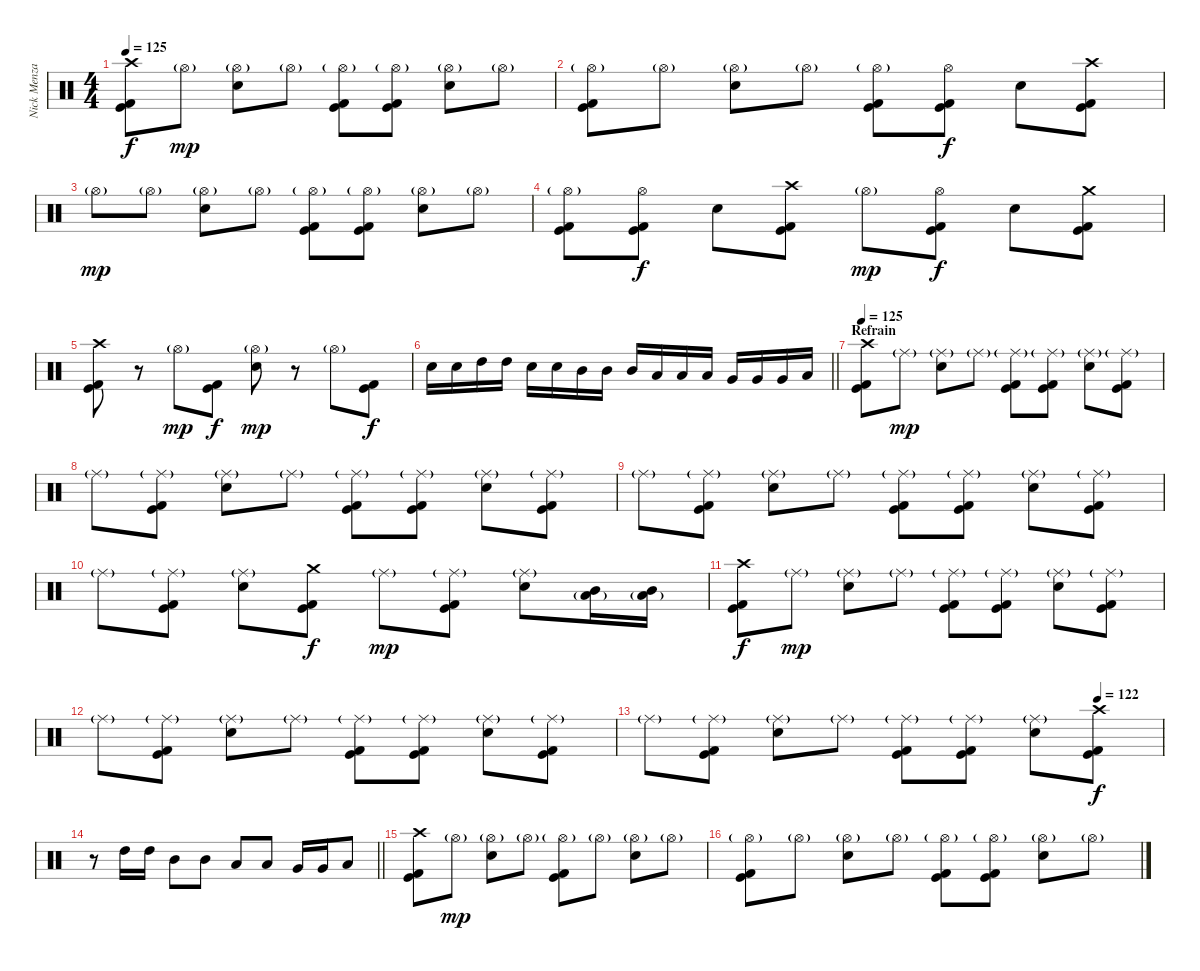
\track ("Nick Menza" "Nick Menza") {instrument percussion}
\staff {score}
\articulation defaults
\ts (4 4)
\tempo 125
\clef neutral
\ks c
("Crash high (hit)" "Kick (hit)" "Kick (hit) 2").8{dy f} "Hi-Hat (open)"{g}.8{dy mp} ("Hi-Hat (open)"{g} "Electric Snare (hit)").8 "Hi-Hat (open)"{g}.8 ("Hi-Hat (open)"{g} "Kick (hit)" "Kick (hit) 2").8 ("Hi-Hat (open)"{g} "Kick (hit)" "Kick (hit) 2").8 ("Hi-Hat (open)"{g} "Electric Snare (hit)").8 "Hi-Hat (open)"{g}.8 |
("Hi-Hat (open)"{g} "Kick (hit)" "Kick (hit) 2").8 "Hi-Hat (open)"{g}.8 ("Hi-Hat (open)"{g} "Electric Snare (hit)").8 "Hi-Hat (open)"{g}.8 ("Hi-Hat (open)"{g} "Kick (hit)" "Kick (hit) 2").8 ("Hi-Hat (open)" "Kick (hit)" "Kick (hit) 2").8{dy f} "Electric Snare (hit)".8 ("Crash high (hit)" "Kick (hit)" "Kick (hit) 2").8 |
"Hi-Hat (open)"{g}.8{dy mp} "Hi-Hat (open)"{g}.8 ("Hi-Hat (open)"{g} "Electric Snare (hit)").8 "Hi-Hat (open)"{g}.8 ("Hi-Hat (open)"{g} "Kick (hit)" "Kick (hit) 2").8 ("Hi-Hat (open)"{g} "Kick (hit)" "Kick (hit) 2").8 ("Hi-Hat (open)"{g} "Electric Snare (hit)").8 "Hi-Hat (open)"{g}.8 |
("Hi-Hat (open)"{g} "Kick (hit)" "Kick (hit) 2").8 ("Hi-Hat (open)" "Kick (hit)" "Kick (hit) 2").8{dy f} "Electric Snare (hit)".8 ("Crash high (hit)" "Kick (hit)" "Kick (hit) 2").8 "Hi-Hat (open)"{g}.8{dy mp} ("Hi-Hat (open)" "Kick (hit)" "Kick (hit) 2").8{dy f} "Electric Snare (hit)".8 ("Crash medium (hit)" "Kick (hit)" "Kick (hit) 2").8 |
("Crash high (hit)" "Kick (hit)" "Kick (hit) 2").8 r.8 "Hi-Hat (open)"{g}.8{dy mp} ("Kick (hit)" "Kick (hit) 2").8{dy f} ("Hi-Hat (open)"{g} "Electric Snare (hit)").8{dy mp} r.8 "Hi-Hat (open)"{g}.8 ("Kick (hit)" "Kick (hit) 2").8{dy f} |
\barLineRight lightlight "Electric Snare (hit)".16 "Electric Snare (hit)".16 "High Tom (hit)".16 "High Tom (hit)".16 "Electric Snare (hit)".16 "Electric Snare (hit)".16 "Mid Tom (hit)".16 "Mid Tom (hit)".16 "Mid Tom (hit)".16 "Low Tom (hit)".16 "Low Tom (hit)".16 "Low Tom (hit)".16 "Very Low Tom (hit)".16 "Very Low Tom (hit)".16 "Very Low Tom (hit)".16 "Low Floor Tom (hit)".16
|
\section ("" "Refrain")
\tempo 125
("Crash high (hit)" "Kick (hit)" "Kick (hit) 2").8 "Ride (middle)"{g}.8{dy mp} ("Ride (middle)"{g} "Electric Snare (hit)").8 "Ride (middle)"{g}.8 ("Ride (middle)"{g} "Kick (hit)" "Kick (hit) 2").8 ("Ride (middle)"{g} "Kick (hit)" "Kick (hit) 2").8 ("Ride (middle)"{g} "Electric Snare (hit)").8 ("Ride (middle)"{g} "Kick (hit)" "Kick (hit) 2").8 |
"Ride (middle)"{g}.8 ("Ride (middle)"{g} "Kick (hit)" "Kick (hit) 2").8 ("Ride (middle)"{g} "Electric Snare (hit)").8 "Ride (middle)"{g}.8 ("Ride (middle)"{g} "Kick (hit)" "Kick (hit) 2").8 ("Ride (middle)"{g} "Kick (hit)" "Kick (hit) 2").8 ("Ride (middle)"{g} "Electric Snare (hit)").8 ("Ride (middle)"{g} "Kick (hit)" "Kick (hit) 2").8 |
"Ride (middle)"{g}.8 ("Ride (middle)"{g} "Kick (hit)" "Kick (hit) 2").8 ("Ride (middle)"{g} "Electric Snare (hit)").8 "Ride (middle)"{g}.8 ("Ride (middle)"{g} "Kick (hit)" "Kick (hit) 2").8 ("Ride (middle)"{g} "Kick (hit)" "Kick (hit) 2").8 ("Ride (middle)"{g} "Electric Snare (hit)").8 ("Ride (middle)"{g} "Kick (hit)" "Kick (hit) 2").8 |
"Ride (middle)"{g}.8 ("Ride (middle)"{g} "Kick (hit)" "Kick (hit) 2").8 ("Ride (middle)"{g} "Electric Snare (hit)").8 ("Crash medium (hit)" "Kick (hit)" "Kick (hit) 2").8{dy f} "Ride (middle)"{g}.8{dy mp} ("Ride (middle)"{g} "Kick (hit)" "Kick (hit) 2").8 ("Ride (middle)"{g} "Electric Snare (hit)").8 ("Mid Tom (hit)" "Low Floor Tom (hit)"{g}).16 ("Mid Tom (hit)" "Low Floor Tom (hit)"{g}).16 |
("Crash high (hit)" "Kick (hit)" "Kick (hit) 2").8{dy f} "Ride (middle)"{g}.8{dy mp} ("Ride (middle)"{g} "Electric Snare (hit)").8 "Ride (middle)"{g}.8 ("Ride (middle)"{g} "Kick (hit)" "Kick (hit) 2").8 ("Ride (middle)"{g} "Kick (hit)" "Kick (hit) 2").8 ("Ride (middle)"{g} "Electric Snare (hit)").8 ("Ride (middle)"{g} "Kick (hit)" "Kick (hit) 2").8 |
"Ride (middle)"{g}.8 ("Ride (middle)"{g} "Kick (hit)" "Kick (hit) 2").8 ("Ride (middle)"{g} "Electric Snare (hit)").8 "Ride (middle)"{g}.8 ("Ride (middle)"{g} "Kick (hit)" "Kick (hit) 2").8 ("Ride (middle)"{g} "Kick (hit)" "Kick (hit) 2").8 ("Ride (middle)"{g} "Electric Snare (hit)").8 ("Ride (middle)"{g} "Kick (hit)" "Kick (hit) 2").8 |
\tempo (122 0.875)
"Ride (middle)"{g}.8 ("Ride (middle)"{g} "Kick (hit)" "Kick (hit) 2").8 ("Ride (middle)"{g} "Electric Snare (hit)").8 "Ride (middle)"{g}.8 ("Ride (middle)"{g} "Kick (hit)" "Kick (hit) 2").8 ("Ride (middle)"{g} "Kick (hit)" "Kick (hit) 2").8 ("Ride (middle)"{g} "Electric Snare (hit)").8 ("Crash high (hit)" "Kick (hit)" "Kick (hit) 2").8{dy f} |
\barLineRight lightlight
r.8 "High Tom (hit)".16 "High Tom (hit)".16 "Mid Tom (hit)".8 "Mid Tom (hit)".8 "Low Tom (hit)".8 "Low Tom (hit)".8 "Very Low Tom (hit)".16 "Very Low Tom (hit)".16 "Low Floor Tom (hit)".8 |
("Crash high (hit)" "Kick (hit)" "Kick (hit) 2").8 "Hi-Hat (open)"{g}.8{dy mp} ("Hi-Hat (open)"{g} "Electric Snare (hit)").8 "Hi-Hat (open)"{g}.8 ("Hi-Hat (open)"{g} "Kick (hit)" "Kick (hit) 2").8 "Hi-Hat (open)"{g}.8 ("Hi-Hat (open)"{g} "Electric Snare (hit)").8 "Hi-Hat (open)"{g}.8 |
("Hi-Hat (open)"{g} "Kick (hit)" "Kick (hit) 2").8 "Hi-Hat (open)"{g}.8 ("Hi-Hat (open)"{g} "Electric Snare (hit)").8 "Hi-Hat (open)"{g}.8 ("Hi-Hat (open)"{g} "Kick (hit)" "Kick (hit) 2").8 ("Hi-Hat (open)"{g} "Kick (hit)" "Kick (hit) 2").8 ("Hi-Hat (open)"{g} "Electric Snare (hit)").8 "Hi-Hat (open)"{g}.8
